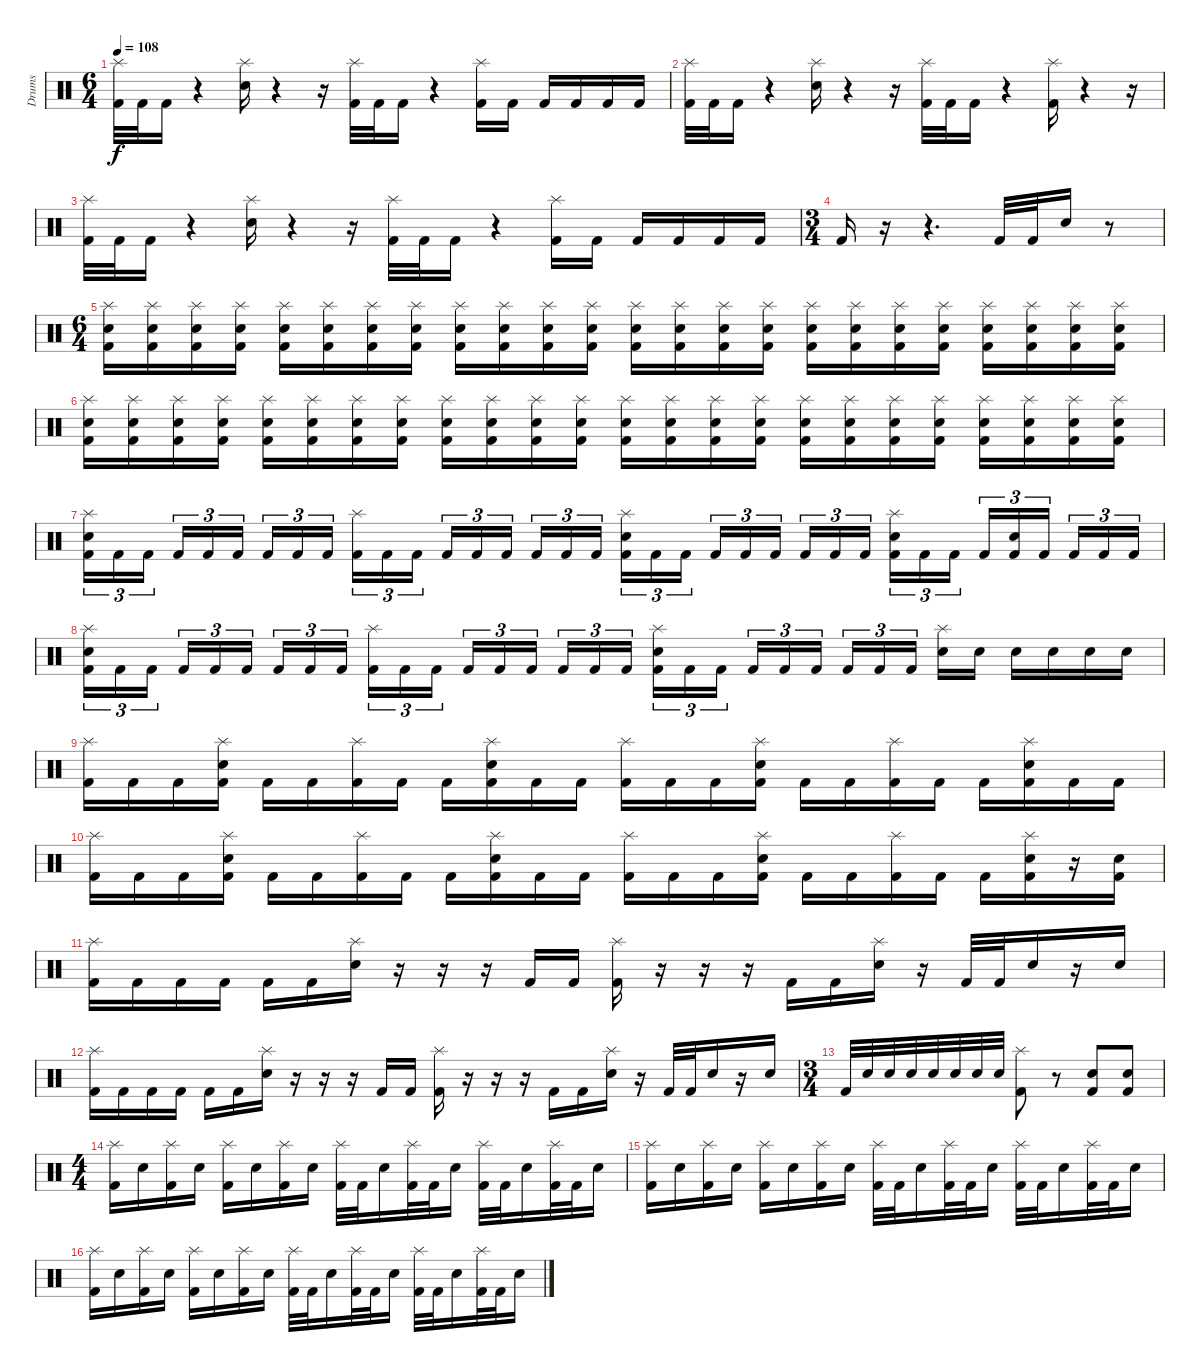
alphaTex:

\track ("Drums" "Drums") {instrument percussion}
\staff {score}
\articulation defaults
\ts (6 4)
\tempo 108
\clef neutral
\ks c
("Splash (hit)" "Kick (hit) 2").32{dy f} "Kick (hit) 2".32 "Kick (hit) 2".16 r.4 ("Splash (hit)" "Snare (hit) 2").16 r.4 r.16 ("Splash (hit)" "Kick (hit) 2").32 "Kick (hit) 2".32 "Kick (hit) 2".16 r.4 ("Splash (hit)" "Kick (hit) 2").16 "Kick (hit) 2".16 "Kick (hit) 2".16 "Kick (hit) 2".16 "Kick (hit) 2".16 "Kick (hit) 2".16 |
("Splash (hit)" "Kick (hit) 2").32 "Kick (hit) 2".32 "Kick (hit) 2".16 r.4 ("Splash (hit)" "Snare (hit) 2").16 r.4 r.16 ("Splash (hit)" "Kick (hit) 2").32 "Kick (hit) 2".32 "Kick (hit) 2".16 r.4 ("Splash (hit)" "Kick (hit) 2").16 r.4 r.16 |
("Splash (hit)" "Kick (hit) 2").32 "Kick (hit) 2".32 "Kick (hit) 2".16 r.4 ("Splash (hit)" "Snare (hit) 2").16 r.4 r.16 ("Splash (hit)" "Kick (hit) 2").32 "Kick (hit) 2".32 "Kick (hit) 2".16 r.4 ("Splash (hit)" "Kick (hit) 2").16 "Kick (hit) 2".16 "Kick (hit) 2".16 "Kick (hit) 2".16 "Kick (hit) 2".16 "Kick (hit) 2".16 |
\ts (3 4)
"Kick (hit) 2".16 r.16 r.4{d} "Kick (hit) 2".32 "Kick (hit) 2".32 "Snare (hit) 2".16 r.8 |
\ts (6 4)
("Splash (hit)" "Snare (hit) 2" "Kick (hit) 2").16 ("Splash (hit)" "Snare (hit) 2" "Kick (hit) 2").16 ("Splash (hit)" "Snare (hit) 2" "Kick (hit) 2").16 ("Splash (hit)" "Snare (hit) 2" "Kick (hit) 2").16 ("Splash (hit)" "Snare (hit) 2" "Kick (hit) 2").16 ("Splash (hit)" "Snare (hit) 2" "Kick (hit) 2").16 ("Splash (hit)" "Snare (hit) 2" "Kick (hit) 2").16 ("Splash (hit)" "Snare (hit) 2" "Kick (hit) 2").16 ("Splash (hit)" "Snare (hit) 2" "Kick (hit) 2").16 ("Splash (hit)" "Snare (hit) 2" "Kick (hit) 2").16 ("Splash (hit)" "Snare (hit) 2" "Kick (hit) 2").16 ("Splash (hit)" "Snare (hit) 2" "Kick (hit) 2").16 ("Splash (hit)" "Snare (hit) 2" "Kick (hit) 2").16 ("Splash (hit)" "Snare (hit) 2" "Kick (hit) 2").16 ("Splash (hit)" "Snare (hit) 2" "Kick (hit) 2").16 ("Splash (hit)" "Snare (hit) 2" "Kick (hit) 2").16 ("Splash (hit)" "Snare (hit) 2" "Kick (hit) 2").16 ("Splash (hit)" "Snare (hit) 2" "Kick (hit) 2").16 ("Splash (hit)" "Snare (hit) 2" "Kick (hit) 2").16 ("Splash (hit)" "Snare (hit) 2" "Kick (hit) 2").16 ("Splash (hit)" "Snare (hit) 2" "Kick (hit) 2").16 ("Splash (hit)" "Snare (hit) 2" "Kick (hit) 2").16 ("Splash (hit)" "Snare (hit) 2" "Kick (hit) 2").16 ("Splash (hit)" "Snare (hit) 2" "Kick (hit) 2").16 |
("Splash (hit)" "Snare (hit) 2" "Kick (hit) 2").16 ("Splash (hit)" "Snare (hit) 2" "Kick (hit) 2").16 ("Splash (hit)" "Snare (hit) 2" "Kick (hit) 2").16 ("Splash (hit)" "Snare (hit) 2" "Kick (hit) 2").16 ("Splash (hit)" "Snare (hit) 2" "Kick (hit) 2").16 ("Splash (hit)" "Snare (hit) 2" "Kick (hit) 2").16 ("Splash (hit)" "Snare (hit) 2" "Kick (hit) 2").16 ("Splash (hit)" "Snare (hit) 2" "Kick (hit) 2").16 ("Splash (hit)" "Snare (hit) 2" "Kick (hit) 2").16 ("Splash (hit)" "Snare (hit) 2" "Kick (hit) 2").16 ("Splash (hit)" "Snare (hit) 2" "Kick (hit) 2").16 ("Splash (hit)" "Snare (hit) 2" "Kick (hit) 2").16 ("Splash (hit)" "Snare (hit) 2" "Kick (hit) 2").16 ("Splash (hit)" "Snare (hit) 2" "Kick (hit) 2").16 ("Splash (hit)" "Snare (hit) 2" "Kick (hit) 2").16 ("Splash (hit)" "Snare (hit) 2" "Kick (hit) 2").16 ("Splash (hit)" "Snare (hit) 2" "Kick (hit) 2").16 ("Splash (hit)" "Snare (hit) 2" "Kick (hit) 2").16 ("Splash (hit)" "Snare (hit) 2" "Kick (hit) 2").16 ("Splash (hit)" "Snare (hit) 2" "Kick (hit) 2").16 ("Splash (hit)" "Snare (hit) 2" "Kick (hit) 2").16 ("Splash (hit)" "Snare (hit) 2" "Kick (hit) 2").16 ("Splash (hit)" "Snare (hit) 2" "Kick (hit) 2").16 ("Splash (hit)" "Snare (hit) 2" "Kick (hit) 2").16 |
("Splash (hit)" "Snare (hit) 2" "Kick (hit) 2").16{tu (3 2)} "Kick (hit) 2".16{tu (3 2)} "Kick (hit) 2".16{tu (3 2) beam splitsecondary} "Kick (hit) 2".16{tu (3 2)} "Kick (hit) 2".16{tu (3 2)} "Kick (hit) 2".16{tu (3 2) beam splitsecondary} "Kick (hit) 2".16{tu (3 2)} "Kick (hit) 2".16{tu (3 2)} "Kick (hit) 2".16{tu (3 2) beam splitsecondary} ("Splash (hit)" "Kick (hit) 2").16{tu (3 2)} "Kick (hit) 2".16{tu (3 2)} "Kick (hit) 2".16{tu (3 2) beam splitsecondary} "Kick (hit) 2".16{tu (3 2)} "Kick (hit) 2".16{tu (3 2)} "Kick (hit) 2".16{tu (3 2) beam splitsecondary} "Kick (hit) 2".16{tu (3 2)} "Kick (hit) 2".16{tu (3 2)} "Kick (hit) 2".16{tu (3 2)} ("Splash (hit)" "Snare (hit) 2" "Kick (hit) 2").16{tu (3 2)} "Kick (hit) 2".16{tu (3 2)} "Kick (hit) 2".16{tu (3 2) beam splitsecondary} "Kick (hit) 2".16{tu (3 2)} "Kick (hit) 2".16{tu (3 2)} "Kick (hit) 2".16{tu (3 2) beam splitsecondary} "Kick (hit) 2".16{tu (3 2)} "Kick (hit) 2".16{tu (3 2)} "Kick (hit) 2".16{tu (3 2) beam splitsecondary} ("Splash (hit)" "Snare (hit) 2" "Kick (hit) 2").16{tu (3 2)} "Kick (hit) 2".16{tu (3 2)} "Kick (hit) 2".16{tu (3 2) beam splitsecondary} "Kick (hit) 2".16{tu (3 2)} ("Snare (hit) 2" "Kick (hit) 2").16{tu (3 2)} "Kick (hit) 2".16{tu (3 2) beam splitsecondary} "Kick (hit) 2".16{tu (3 2)} "Kick (hit) 2".16{tu (3 2)} "Kick (hit) 2".16{tu (3 2)} |
("Splash (hit)" "Snare (hit) 2" "Kick (hit) 2").16{tu (3 2)} "Kick (hit) 2".16{tu (3 2)} "Kick (hit) 2".16{tu (3 2) beam splitsecondary} "Kick (hit) 2".16{tu (3 2)} "Kick (hit) 2".16{tu (3 2)} "Kick (hit) 2".16{tu (3 2) beam splitsecondary} "Kick (hit) 2".16{tu (3 2)} "Kick (hit) 2".16{tu (3 2)} "Kick (hit) 2".16{tu (3 2) beam splitsecondary} ("Splash (hit)" "Kick (hit) 2").16{tu (3 2)} "Kick (hit) 2".16{tu (3 2)} "Kick (hit) 2".16{tu (3 2) beam splitsecondary} "Kick (hit) 2".16{tu (3 2)} "Kick (hit) 2".16{tu (3 2)} "Kick (hit) 2".16{tu (3 2) beam splitsecondary} "Kick (hit) 2".16{tu (3 2)} "Kick (hit) 2".16{tu (3 2)} "Kick (hit) 2".16{tu (3 2)} ("Splash (hit)" "Snare (hit) 2" "Kick (hit) 2").16{tu (3 2)} "Kick (hit) 2".16{tu (3 2)} "Kick (hit) 2".16{tu (3 2) beam splitsecondary} "Kick (hit) 2".16{tu (3 2)} "Kick (hit) 2".16{tu (3 2)} "Kick (hit) 2".16{tu (3 2) beam splitsecondary} "Kick (hit) 2".16{tu (3 2)} "Kick (hit) 2".16{tu (3 2)} "Kick (hit) 2".16{tu (3 2) beam splitsecondary} ("Splash (hit)" "Snare (hit) 2").16 "Snare (hit) 2".16 "Snare (hit) 2".16 "Snare (hit) 2".16 "Snare (hit) 2".16 "Snare (hit) 2".16 |
("Splash (hit)" "Kick (hit) 2").16 "Kick (hit) 2".16 "Kick (hit) 2".16 ("Splash (hit)" "Snare (hit) 2" "Kick (hit) 2").16 "Kick (hit) 2".16 "Kick (hit) 2".16 ("Splash (hit)" "Kick (hit) 2").16 "Kick (hit) 2".16 "Kick (hit) 2".16 ("Splash (hit)" "Snare (hit) 2" "Kick (hit) 2").16 "Kick (hit) 2".16 "Kick (hit) 2".16 ("Splash (hit)" "Kick (hit) 2").16 "Kick (hit) 2".16 "Kick (hit) 2".16 ("Splash (hit)" "Snare (hit) 2" "Kick (hit) 2").16 "Kick (hit) 2".16 "Kick (hit) 2".16 ("Splash (hit)" "Kick (hit) 2").16 "Kick (hit) 2".16 "Kick (hit) 2".16 ("Splash (hit)" "Snare (hit) 2" "Kick (hit) 2").16 "Kick (hit) 2".16 "Kick (hit) 2".16 |
("Splash (hit)" "Kick (hit) 2").16 "Kick (hit) 2".16 "Kick (hit) 2".16 ("Splash (hit)" "Snare (hit) 2" "Kick (hit) 2").16 "Kick (hit) 2".16 "Kick (hit) 2".16 ("Splash (hit)" "Kick (hit) 2").16 "Kick (hit) 2".16 "Kick (hit) 2".16 ("Splash (hit)" "Snare (hit) 2" "Kick (hit) 2").16 "Kick (hit) 2".16 "Kick (hit) 2".16 ("Splash (hit)" "Kick (hit) 2").16 "Kick (hit) 2".16 "Kick (hit) 2".16 ("Splash (hit)" "Snare (hit) 2" "Kick (hit) 2").16 "Kick (hit) 2".16 "Kick (hit) 2".16 ("Splash (hit)" "Kick (hit) 2").16 "Kick (hit) 2".16 "Kick (hit) 2".16 ("Splash (hit)" "Snare (hit) 2" "Kick (hit) 2").16 r.16 ("Snare (hit) 2" "Kick (hit) 2").16 |
("Splash (hit)" "Kick (hit) 2").16 "Kick (hit) 2".16 "Kick (hit) 2".16 "Kick (hit) 2".16 "Kick (hit) 2".16 "Kick (hit) 2".16 ("Splash (hit)" "Snare (hit) 2").16 r.16 r.16 r.16 "Kick (hit) 2".16 "Kick (hit) 2".16 ("Splash (hit)" "Kick (hit) 2").16 r.16 r.16 r.16 "Kick (hit) 2".16 "Kick (hit) 2".16 ("Splash (hit)" "Snare (hit) 2").16 r.16 "Kick (hit) 2".32 "Kick (hit) 2".32 "Snare (hit) 2".16 r.16 "Snare (hit) 2".16 |
("Splash (hit)" "Kick (hit) 2").16 "Kick (hit) 2".16 "Kick (hit) 2".16 "Kick (hit) 2".16 "Kick (hit) 2".16 "Kick (hit) 2".16 ("Splash (hit)" "Snare (hit) 2").16 r.16 r.16 r.16 "Kick (hit) 2".16 "Kick (hit) 2".16 ("Splash (hit)" "Kick (hit) 2").16 r.16 r.16 r.16 "Kick (hit) 2".16 "Kick (hit) 2".16 ("Splash (hit)" "Snare (hit) 2").16 r.16 "Kick (hit) 2".32 "Kick (hit) 2".32 "Snare (hit) 2".16 r.16 "Snare (hit) 2".16 |
\ts (3 4)
"Kick (hit) 2".32 "Snare (hit) 2".32 "Snare (hit) 2".32 "Snare (hit) 2".32 "Snare (hit) 2".32 "Snare (hit) 2".32 "Snare (hit) 2".32 "Snare (hit) 2".32 ("Splash (hit)" "Kick (hit) 2").8 r.8 ("Snare (hit) 2" "Kick (hit) 2").8 ("Snare (hit) 2" "Kick (hit) 2").8 |
\ts (4 4)
("Splash (hit)" "Kick (hit) 2").16 "Snare (hit) 2".16 ("Splash (hit)" "Kick (hit) 2").16 "Snare (hit) 2".16 ("Splash (hit)" "Kick (hit) 2").16 "Snare (hit) 2".16 ("Splash (hit)" "Kick (hit) 2").16 "Snare (hit) 2".16 ("Splash (hit)" "Kick (hit) 2").32 "Kick (hit) 2".32 "Snare (hit) 2".16 ("Splash (hit)" "Kick (hit) 2").32 "Kick (hit) 2".32 "Snare (hit) 2".16 ("Splash (hit)" "Kick (hit) 2").32 "Kick (hit) 2".32 "Snare (hit) 2".16 ("Splash (hit)" "Kick (hit) 2").32 "Kick (hit) 2".32 "Snare (hit) 2".16 |
("Splash (hit)" "Kick (hit) 2").16 "Snare (hit) 2".16 ("Splash (hit)" "Kick (hit) 2").16 "Snare (hit) 2".16 ("Splash (hit)" "Kick (hit) 2").16 "Snare (hit) 2".16 ("Splash (hit)" "Kick (hit) 2").16 "Snare (hit) 2".16 ("Splash (hit)" "Kick (hit) 2").32 "Kick (hit) 2".32 "Snare (hit) 2".16 ("Splash (hit)" "Kick (hit) 2").32 "Kick (hit) 2".32 "Snare (hit) 2".16 ("Splash (hit)" "Kick (hit) 2").32 "Kick (hit) 2".32 "Snare (hit) 2".16 ("Splash (hit)" "Kick (hit) 2").32 "Kick (hit) 2".32 "Snare (hit) 2".16 |
("Splash (hit)" "Kick (hit) 2").16 "Snare (hit) 2".16 ("Splash (hit)" "Kick (hit) 2").16 "Snare (hit) 2".16 ("Splash (hit)" "Kick (hit) 2").16 "Snare (hit) 2".16 ("Splash (hit)" "Kick (hit) 2").16 "Snare (hit) 2".16 ("Splash (hit)" "Kick (hit) 2").32 "Kick (hit) 2".32 "Snare (hit) 2".16 ("Splash (hit)" "Kick (hit) 2").32 "Kick (hit) 2".32 "Snare (hit) 2".16 ("Splash (hit)" "Kick (hit) 2").32 "Kick (hit) 2".32 "Snare (hit) 2".16 ("Splash (hit)" "Kick (hit) 2").32 "Kick (hit) 2".32 "Snare (hit) 2".16
